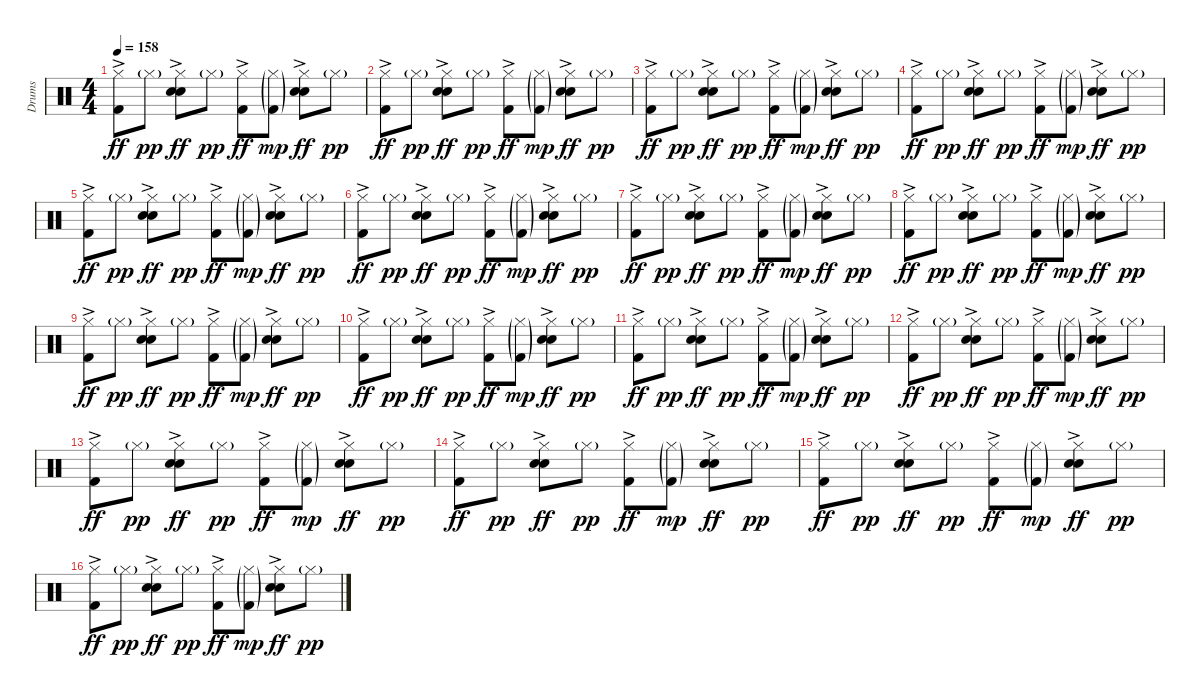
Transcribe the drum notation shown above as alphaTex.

\track ("Drums" "Drums") {instrument percussion}
\staff {score}
\articulation defaults
\ts (4 4)
\tempo 158
\clef neutral
\ks c
("Hi-Hat (closed)" "Kick (hit) 2"{ac}).8{dy ff} "Hi-Hat (closed)"{g}.8{dy pp} ("Hi-Hat (closed)" "Electric Snare (hit)"{ac} "Snare (hit) 2").8{dy ff} "Hi-Hat (closed)"{g}.8{dy pp} ("Hi-Hat (closed)" "Kick (hit) 2"{ac}).8{dy ff} ("Hi-Hat (closed)"{g} "Kick (hit) 2"{g}).8{dy mp} ("Hi-Hat (closed)" "Electric Snare (hit)"{ac} "Snare (hit) 2").8{dy ff} "Hi-Hat (closed)"{g}.8{dy pp} |
("Hi-Hat (closed)" "Kick (hit) 2"{ac}).8{dy ff} "Hi-Hat (closed)"{g}.8{dy pp} ("Hi-Hat (closed)" "Electric Snare (hit)"{ac} "Snare (hit) 2").8{dy ff} "Hi-Hat (closed)"{g}.8{dy pp} ("Hi-Hat (closed)" "Kick (hit) 2"{ac}).8{dy ff} ("Hi-Hat (closed)"{g} "Kick (hit) 2"{g}).8{dy mp} ("Hi-Hat (closed)" "Electric Snare (hit)"{ac} "Snare (hit) 2").8{dy ff} "Hi-Hat (closed)"{g}.8{dy pp} |
("Hi-Hat (closed)" "Kick (hit) 2"{ac}).8{dy ff} "Hi-Hat (closed)"{g}.8{dy pp} ("Hi-Hat (closed)" "Electric Snare (hit)"{ac} "Snare (hit) 2").8{dy ff} "Hi-Hat (closed)"{g}.8{dy pp} ("Hi-Hat (closed)" "Kick (hit) 2"{ac}).8{dy ff} ("Hi-Hat (closed)"{g} "Kick (hit) 2"{g}).8{dy mp} ("Hi-Hat (closed)" "Electric Snare (hit)"{ac} "Snare (hit) 2").8{dy ff} "Hi-Hat (closed)"{g}.8{dy pp} |
("Hi-Hat (closed)" "Kick (hit) 2"{ac}).8{dy ff} "Hi-Hat (closed)"{g}.8{dy pp} ("Hi-Hat (closed)" "Electric Snare (hit)"{ac} "Snare (hit) 2").8{dy ff} "Hi-Hat (closed)"{g}.8{dy pp} ("Hi-Hat (closed)" "Kick (hit) 2"{ac}).8{dy ff} ("Hi-Hat (closed)"{g} "Kick (hit) 2"{g}).8{dy mp} ("Hi-Hat (closed)" "Electric Snare (hit)"{ac} "Snare (hit) 2").8{dy ff} "Hi-Hat (closed)"{g}.8{dy pp} |
("Hi-Hat (closed)" "Kick (hit) 2"{ac}).8{dy ff} "Hi-Hat (closed)"{g}.8{dy pp} ("Hi-Hat (closed)" "Electric Snare (hit)"{ac} "Snare (hit) 2").8{dy ff} "Hi-Hat (closed)"{g}.8{dy pp} ("Hi-Hat (closed)" "Kick (hit) 2"{ac}).8{dy ff} ("Hi-Hat (closed)"{g} "Kick (hit) 2"{g}).8{dy mp} ("Hi-Hat (closed)" "Electric Snare (hit)"{ac} "Snare (hit) 2").8{dy ff} "Hi-Hat (closed)"{g}.8{dy pp} |
("Hi-Hat (closed)" "Kick (hit) 2"{ac}).8{dy ff} "Hi-Hat (closed)"{g}.8{dy pp} ("Hi-Hat (closed)" "Electric Snare (hit)"{ac} "Snare (hit) 2").8{dy ff} "Hi-Hat (closed)"{g}.8{dy pp} ("Hi-Hat (closed)" "Kick (hit) 2"{ac}).8{dy ff} ("Hi-Hat (closed)"{g} "Kick (hit) 2"{g}).8{dy mp} ("Hi-Hat (closed)" "Electric Snare (hit)"{ac} "Snare (hit) 2").8{dy ff} "Hi-Hat (closed)"{g}.8{dy pp} |
("Hi-Hat (closed)" "Kick (hit) 2"{ac}).8{dy ff} "Hi-Hat (closed)"{g}.8{dy pp} ("Hi-Hat (closed)" "Electric Snare (hit)"{ac} "Snare (hit) 2").8{dy ff} "Hi-Hat (closed)"{g}.8{dy pp} ("Hi-Hat (closed)" "Kick (hit) 2"{ac}).8{dy ff} ("Hi-Hat (closed)"{g} "Kick (hit) 2"{g}).8{dy mp} ("Hi-Hat (closed)" "Electric Snare (hit)"{ac} "Snare (hit) 2").8{dy ff} "Hi-Hat (closed)"{g}.8{dy pp} |
("Hi-Hat (closed)" "Kick (hit) 2"{ac}).8{dy ff} "Hi-Hat (closed)"{g}.8{dy pp} ("Hi-Hat (closed)" "Electric Snare (hit)"{ac} "Snare (hit) 2").8{dy ff} "Hi-Hat (closed)"{g}.8{dy pp} ("Hi-Hat (closed)" "Kick (hit) 2"{ac}).8{dy ff} ("Hi-Hat (closed)"{g} "Kick (hit) 2"{g}).8{dy mp} ("Hi-Hat (closed)" "Electric Snare (hit)"{ac} "Snare (hit) 2").8{dy ff} "Hi-Hat (closed)"{g}.8{dy pp} |
("Hi-Hat (closed)" "Kick (hit) 2"{ac}).8{dy ff} "Hi-Hat (closed)"{g}.8{dy pp} ("Hi-Hat (closed)" "Electric Snare (hit)"{ac} "Snare (hit) 2").8{dy ff} "Hi-Hat (closed)"{g}.8{dy pp} ("Hi-Hat (closed)" "Kick (hit) 2"{ac}).8{dy ff} ("Hi-Hat (closed)"{g} "Kick (hit) 2"{g}).8{dy mp} ("Hi-Hat (closed)" "Electric Snare (hit)"{ac} "Snare (hit) 2").8{dy ff} "Hi-Hat (closed)"{g}.8{dy pp} |
("Hi-Hat (closed)" "Kick (hit) 2"{ac}).8{dy ff} "Hi-Hat (closed)"{g}.8{dy pp} ("Hi-Hat (closed)" "Electric Snare (hit)"{ac} "Snare (hit) 2").8{dy ff} "Hi-Hat (closed)"{g}.8{dy pp} ("Hi-Hat (closed)" "Kick (hit) 2"{ac}).8{dy ff} ("Hi-Hat (closed)"{g} "Kick (hit) 2"{g}).8{dy mp} ("Hi-Hat (closed)" "Electric Snare (hit)"{ac} "Snare (hit) 2").8{dy ff} "Hi-Hat (closed)"{g}.8{dy pp} |
("Hi-Hat (closed)" "Kick (hit) 2"{ac}).8{dy ff} "Hi-Hat (closed)"{g}.8{dy pp} ("Hi-Hat (closed)" "Electric Snare (hit)"{ac} "Snare (hit) 2").8{dy ff} "Hi-Hat (closed)"{g}.8{dy pp} ("Hi-Hat (closed)" "Kick (hit) 2"{ac}).8{dy ff} ("Hi-Hat (closed)"{g} "Kick (hit) 2"{g}).8{dy mp} ("Hi-Hat (closed)" "Electric Snare (hit)"{ac} "Snare (hit) 2").8{dy ff} "Hi-Hat (closed)"{g}.8{dy pp} |
("Hi-Hat (closed)" "Kick (hit) 2"{ac}).8{dy ff} "Hi-Hat (closed)"{g}.8{dy pp} ("Hi-Hat (closed)" "Electric Snare (hit)"{ac} "Snare (hit) 2").8{dy ff} "Hi-Hat (closed)"{g}.8{dy pp} ("Hi-Hat (closed)" "Kick (hit) 2"{ac}).8{dy ff} ("Hi-Hat (closed)"{g} "Kick (hit) 2"{g}).8{dy mp} ("Hi-Hat (closed)" "Electric Snare (hit)"{ac} "Snare (hit) 2").8{dy ff} "Hi-Hat (closed)"{g}.8{dy pp} |
("Hi-Hat (closed)" "Kick (hit) 2"{ac}).8{dy ff} "Hi-Hat (closed)"{g}.8{dy pp} ("Hi-Hat (closed)" "Electric Snare (hit)"{ac} "Snare (hit) 2").8{dy ff} "Hi-Hat (closed)"{g}.8{dy pp} ("Hi-Hat (closed)" "Kick (hit) 2"{ac}).8{dy ff} ("Hi-Hat (closed)"{g} "Kick (hit) 2"{g}).8{dy mp} ("Hi-Hat (closed)" "Electric Snare (hit)"{ac} "Snare (hit) 2").8{dy ff} "Hi-Hat (closed)"{g}.8{dy pp} |
("Hi-Hat (closed)" "Kick (hit) 2"{ac}).8{dy ff} "Hi-Hat (closed)"{g}.8{dy pp} ("Hi-Hat (closed)" "Electric Snare (hit)"{ac} "Snare (hit) 2").8{dy ff} "Hi-Hat (closed)"{g}.8{dy pp} ("Hi-Hat (closed)" "Kick (hit) 2"{ac}).8{dy ff} ("Hi-Hat (closed)"{g} "Kick (hit) 2"{g}).8{dy mp} ("Hi-Hat (closed)" "Electric Snare (hit)"{ac} "Snare (hit) 2").8{dy ff} "Hi-Hat (closed)"{g}.8{dy pp} |
("Hi-Hat (closed)" "Kick (hit) 2"{ac}).8{dy ff} "Hi-Hat (closed)"{g}.8{dy pp} ("Hi-Hat (closed)" "Electric Snare (hit)"{ac} "Snare (hit) 2").8{dy ff} "Hi-Hat (closed)"{g}.8{dy pp} ("Hi-Hat (closed)" "Kick (hit) 2"{ac}).8{dy ff} ("Hi-Hat (closed)"{g} "Kick (hit) 2"{g}).8{dy mp} ("Hi-Hat (closed)" "Electric Snare (hit)"{ac} "Snare (hit) 2").8{dy ff} "Hi-Hat (closed)"{g}.8{dy pp} |
("Hi-Hat (closed)" "Kick (hit) 2"{ac}).8{dy ff} "Hi-Hat (closed)"{g}.8{dy pp} ("Hi-Hat (closed)" "Electric Snare (hit)"{ac} "Snare (hit) 2").8{dy ff} "Hi-Hat (closed)"{g}.8{dy pp} ("Hi-Hat (closed)" "Kick (hit) 2"{ac}).8{dy ff} ("Hi-Hat (closed)"{g} "Kick (hit) 2"{g}).8{dy mp} ("Hi-Hat (closed)" "Electric Snare (hit)"{ac} "Snare (hit) 2").8{dy ff} "Hi-Hat (closed)"{g}.8{dy pp}
